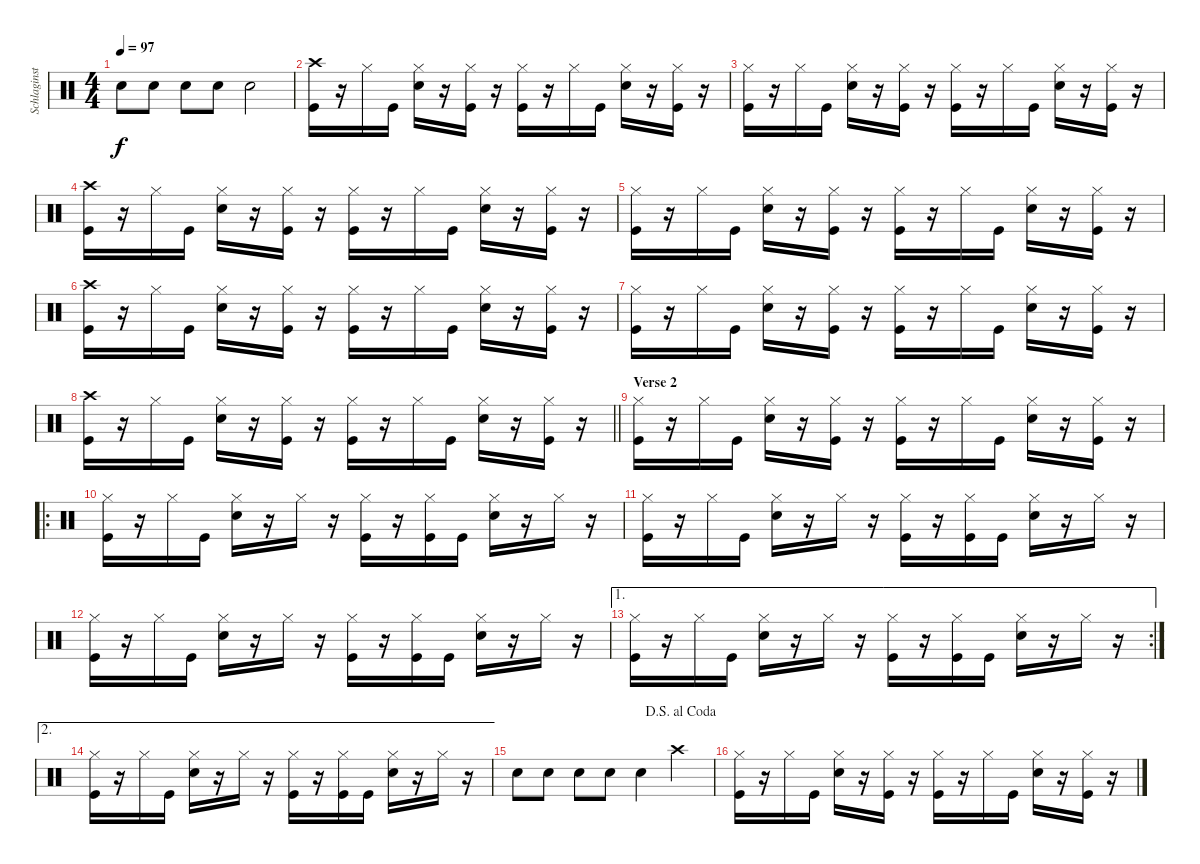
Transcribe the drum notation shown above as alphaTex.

\track ("Schlaginstrumente - Auswahl" "Schlaginst") {instrument percussion}
\staff {score}
\articulation defaults
\ts (4 4)
\tempo 97
\clef neutral
\ks c "Snare (hit) 2".8{dy f} "Snare (hit) 2".8 "Snare (hit) 2".8 "Snare (hit) 2".8 "Snare (hit) 2".2
|
("Crash high (hit)" "Kick (hit)").16 r.16 "Hi-Hat (closed)".16 "Kick (hit)".16 ("Hi-Hat (closed)" "Snare (hit) 2").16 r.16 ("Hi-Hat (closed)" "Kick (hit)").16 r.16 ("Hi-Hat (closed)" "Kick (hit)").16 r.16 "Hi-Hat (closed)".16 "Kick (hit)".16 ("Hi-Hat (closed)" "Snare (hit) 2").16 r.16 ("Hi-Hat (closed)" "Kick (hit)").16 r.16 |
("Hi-Hat (closed)" "Kick (hit)").16 r.16 "Hi-Hat (closed)".16 "Kick (hit)".16 ("Hi-Hat (closed)" "Snare (hit) 2").16 r.16 ("Hi-Hat (closed)" "Kick (hit)").16 r.16 ("Hi-Hat (closed)" "Kick (hit)").16 r.16 "Hi-Hat (closed)".16 "Kick (hit)".16 ("Hi-Hat (closed)" "Snare (hit) 2").16 r.16 ("Hi-Hat (closed)" "Kick (hit)").16 r.16 |
("Crash high (hit)" "Kick (hit)").16 r.16 "Hi-Hat (closed)".16 "Kick (hit)".16 ("Hi-Hat (closed)" "Snare (hit) 2").16 r.16 ("Hi-Hat (closed)" "Kick (hit)").16 r.16 ("Hi-Hat (closed)" "Kick (hit)").16 r.16 "Hi-Hat (closed)".16 "Kick (hit)".16 ("Hi-Hat (closed)" "Snare (hit) 2").16 r.16 ("Hi-Hat (closed)" "Kick (hit)").16 r.16 |
("Hi-Hat (closed)" "Kick (hit)").16 r.16 "Hi-Hat (closed)".16 "Kick (hit)".16 ("Hi-Hat (closed)" "Snare (hit) 2").16 r.16 ("Hi-Hat (closed)" "Kick (hit)").16 r.16 ("Hi-Hat (closed)" "Kick (hit)").16 r.16 "Hi-Hat (closed)".16 "Kick (hit)".16 ("Hi-Hat (closed)" "Snare (hit) 2").16 r.16 ("Hi-Hat (closed)" "Kick (hit)").16 r.16 |
("Crash high (hit)" "Kick (hit)").16 r.16 "Hi-Hat (closed)".16 "Kick (hit)".16 ("Hi-Hat (closed)" "Snare (hit) 2").16 r.16 ("Hi-Hat (closed)" "Kick (hit)").16 r.16 ("Hi-Hat (closed)" "Kick (hit)").16 r.16 "Hi-Hat (closed)".16 "Kick (hit)".16 ("Hi-Hat (closed)" "Snare (hit) 2").16 r.16 ("Hi-Hat (closed)" "Kick (hit)").16 r.16 |
("Hi-Hat (closed)" "Kick (hit)").16 r.16 "Hi-Hat (closed)".16 "Kick (hit)".16 ("Hi-Hat (closed)" "Snare (hit) 2").16 r.16 ("Hi-Hat (closed)" "Kick (hit)").16 r.16 ("Hi-Hat (closed)" "Kick (hit)").16 r.16 "Hi-Hat (closed)".16 "Kick (hit)".16 ("Hi-Hat (closed)" "Snare (hit) 2").16 r.16 ("Hi-Hat (closed)" "Kick (hit)").16 r.16 |
\barLineRight lightlight
("Crash high (hit)" "Kick (hit)").16 r.16 "Hi-Hat (closed)".16 "Kick (hit)".16 ("Hi-Hat (closed)" "Snare (hit) 2").16 r.16 ("Hi-Hat (closed)" "Kick (hit)").16 r.16 ("Hi-Hat (closed)" "Kick (hit)").16 r.16 "Hi-Hat (closed)".16 "Kick (hit)".16 ("Hi-Hat (closed)" "Snare (hit) 2").16 r.16 ("Hi-Hat (closed)" "Kick (hit)").16 r.16 |
\section ("" "Verse 2")
("Hi-Hat (closed)" "Kick (hit)").16 r.16 "Hi-Hat (closed)".16 "Kick (hit)".16 ("Hi-Hat (closed)" "Snare (hit) 2").16 r.16 ("Hi-Hat (closed)" "Kick (hit)").16 r.16 ("Hi-Hat (closed)" "Kick (hit)").16 r.16 "Hi-Hat (closed)".16 "Kick (hit)".16 ("Hi-Hat (closed)" "Snare (hit) 2").16 r.16 ("Hi-Hat (closed)" "Kick (hit)").16 r.16 |
\ro
("Hi-Hat (closed)" "Kick (hit)").16 r.16 "Hi-Hat (closed)".16 "Kick (hit)".16 ("Hi-Hat (closed)" "Snare (hit) 2").16 r.16 "Hi-Hat (closed)".16 r.16 ("Hi-Hat (closed)" "Kick (hit)").16 r.16 ("Hi-Hat (closed)" "Kick (hit)").16 "Kick (hit)".16 ("Hi-Hat (closed)" "Snare (hit) 2").16 r.16 "Hi-Hat (closed)".16 r.16 |
("Hi-Hat (closed)" "Kick (hit)").16 r.16 "Hi-Hat (closed)".16 "Kick (hit)".16 ("Hi-Hat (closed)" "Snare (hit) 2").16 r.16 "Hi-Hat (closed)".16 r.16 ("Hi-Hat (closed)" "Kick (hit)").16 r.16 ("Hi-Hat (closed)" "Kick (hit)").16 "Kick (hit)".16 ("Hi-Hat (closed)" "Snare (hit) 2").16 r.16 "Hi-Hat (closed)".16 r.16 |
("Hi-Hat (closed)" "Kick (hit)").16 r.16 "Hi-Hat (closed)".16 "Kick (hit)".16 ("Hi-Hat (closed)" "Snare (hit) 2").16 r.16 "Hi-Hat (closed)".16 r.16 ("Hi-Hat (closed)" "Kick (hit)").16 r.16 ("Hi-Hat (closed)" "Kick (hit)").16 "Kick (hit)".16 ("Hi-Hat (closed)" "Snare (hit) 2").16 r.16 "Hi-Hat (closed)".16 r.16 |
\ae 1
\rc 2
("Hi-Hat (closed)" "Kick (hit)").16 r.16 "Hi-Hat (closed)".16 "Kick (hit)".16 ("Hi-Hat (closed)" "Snare (hit) 2").16 r.16 "Hi-Hat (closed)".16 r.16 ("Hi-Hat (closed)" "Kick (hit)").16 r.16 ("Hi-Hat (closed)" "Kick (hit)").16 "Kick (hit)".16 ("Hi-Hat (closed)" "Snare (hit) 2").16 r.16 "Hi-Hat (closed)".16 r.16 |
\ae 2
("Hi-Hat (closed)" "Kick (hit)").16 r.16 "Hi-Hat (closed)".16 "Kick (hit)".16 ("Hi-Hat (closed)" "Snare (hit) 2").16 r.16 "Hi-Hat (closed)".16 r.16 ("Hi-Hat (closed)" "Kick (hit)").16 r.16 ("Hi-Hat (closed)" "Kick (hit)").16 "Kick (hit)".16 ("Hi-Hat (closed)" "Snare (hit) 2").16 r.16 "Hi-Hat (closed)".16 r.16 |
\jump dalsegnoalcoda "Snare (hit) 2".8 "Snare (hit) 2".8 "Snare (hit) 2".8 "Snare (hit) 2".8 "Snare (hit) 2".4 "Crash high (hit)".4
|
("Hi-Hat (closed)" "Kick (hit)").16 r.16 "Hi-Hat (closed)".16 "Kick (hit)".16 ("Hi-Hat (closed)" "Snare (hit) 2").16 r.16 ("Hi-Hat (closed)" "Kick (hit)").16 r.16 ("Hi-Hat (closed)" "Kick (hit)").16 r.16 "Hi-Hat (closed)".16 "Kick (hit)".16 ("Hi-Hat (closed)" "Snare (hit) 2").16 r.16 ("Hi-Hat (closed)" "Kick (hit)").16 r.16
